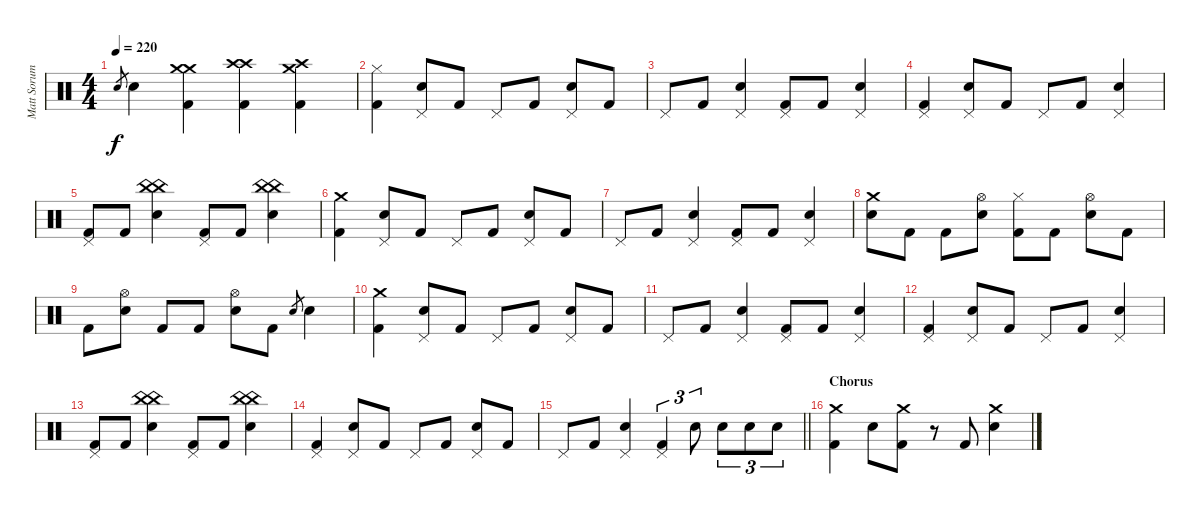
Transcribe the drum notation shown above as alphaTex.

\track ("Matt Sorum - Drums" "Matt Sorum") {instrument percussion}
\staff {score}
\articulation defaults
\ts (4 4)
\tempo 220
\clef neutral
\ks c "Snare (hit) 2".8{gr dy f} "Snare (hit) 2".4
("Crash medium (hit)" "Crash medium (hit)" "Kick (hit) 2").4 ("Crash high (hit)" "Crash high (hit)" "Kick (hit) 2").4 ("Crash medium (hit)" "Crash high (hit)" "Kick (hit) 2").4 |
("Hi-Hat (closed)" "Kick (hit) 2").4 ("Pedal Hi-Hat (hit)" "Snare (hit) 2").8 "Kick (hit) 2".8 "Pedal Hi-Hat (hit)".8 "Kick (hit) 2".8 ("Pedal Hi-Hat (hit)" "Snare (hit) 2").8 "Kick (hit) 2".8 |
"Pedal Hi-Hat (hit)".8 "Kick (hit) 2".8 ("Pedal Hi-Hat (hit)" "Snare (hit) 2").4 ("Pedal Hi-Hat (hit)" "Kick (hit) 2").8 "Kick (hit) 2".8 ("Pedal Hi-Hat (hit)" "Snare (hit) 2").4 |
("Pedal Hi-Hat (hit)" "Kick (hit) 2").4 ("Pedal Hi-Hat (hit)" "Snare (hit) 2").8 "Kick (hit) 2".8 "Pedal Hi-Hat (hit)".8 "Kick (hit) 2".8 ("Pedal Hi-Hat (hit)" "Snare (hit) 2").4 |
("Pedal Hi-Hat (hit)" "Kick (hit) 2").8 "Kick (hit) 2".8 ("China (hit)" "China (hit)" "Snare (hit) 2").4 ("Pedal Hi-Hat (hit)" "Kick (hit) 2").8 "Kick (hit) 2".8 ("China (hit)" "China (hit)" "Snare (hit) 2").4 |
("Crash medium (hit)" "Kick (hit) 2").4 ("Pedal Hi-Hat (hit)" "Snare (hit) 2").8 "Kick (hit) 2".8 "Pedal Hi-Hat (hit)".8 "Kick (hit) 2".8 ("Pedal Hi-Hat (hit)" "Snare (hit) 2").8 "Kick (hit) 2".8 |
"Pedal Hi-Hat (hit)".8 "Kick (hit) 2".8 ("Pedal Hi-Hat (hit)" "Snare (hit) 2").4 ("Pedal Hi-Hat (hit)" "Kick (hit) 2").8 "Kick (hit) 2".8 ("Pedal Hi-Hat (hit)" "Snare (hit) 2").4 |
("Crash medium (hit)" "Snare (hit) 2").8 "Kick (hit) 2".8 "Kick (hit) 2".8 ("Hi-Hat (open)" "Snare (hit) 2").8 ("Hi-Hat (closed)" "Kick (hit) 2").8 "Kick (hit) 2".8 ("Hi-Hat (open)" "Snare (hit) 2").8 "Kick (hit) 2".8 |
"Kick (hit) 2".8 ("Hi-Hat (open)" "Snare (hit) 2").8 "Kick (hit) 2".8 "Kick (hit) 2".8 ("Hi-Hat (open)" "Snare (hit) 2").8 "Kick (hit) 2".8 "Snare (hit) 2".8{gr} "Snare (hit) 2".4 |
("Crash medium (hit)" "Kick (hit) 2").4 ("Pedal Hi-Hat (hit)" "Snare (hit) 2").8 "Kick (hit) 2".8 "Pedal Hi-Hat (hit)".8 "Kick (hit) 2".8 ("Pedal Hi-Hat (hit)" "Snare (hit) 2").8 "Kick (hit) 2".8 |
"Pedal Hi-Hat (hit)".8 "Kick (hit) 2".8 ("Pedal Hi-Hat (hit)" "Snare (hit) 2").4 ("Pedal Hi-Hat (hit)" "Kick (hit) 2").8 "Kick (hit) 2".8 ("Pedal Hi-Hat (hit)" "Snare (hit) 2").4 |
("Pedal Hi-Hat (hit)" "Kick (hit) 2").4 ("Pedal Hi-Hat (hit)" "Snare (hit) 2").8 "Kick (hit) 2".8 "Pedal Hi-Hat (hit)".8 "Kick (hit) 2".8 ("Pedal Hi-Hat (hit)" "Snare (hit) 2").4 |
("Pedal Hi-Hat (hit)" "Kick (hit) 2").8 "Kick (hit) 2".8 ("China (hit)" "China (hit)" "Snare (hit) 2").4 ("Pedal Hi-Hat (hit)" "Kick (hit) 2").8 "Kick (hit) 2".8 ("China (hit)" "China (hit)" "Snare (hit) 2").4 |
("Pedal Hi-Hat (hit)" "Kick (hit) 2").4 ("Pedal Hi-Hat (hit)" "Snare (hit) 2").8 "Kick (hit) 2".8 "Pedal Hi-Hat (hit)".8 "Kick (hit) 2".8 ("Pedal Hi-Hat (hit)" "Snare (hit) 2").8 "Kick (hit) 2".8 |
\barLineRight lightlight "Pedal Hi-Hat (hit)".8 "Kick (hit) 2".8
("Pedal Hi-Hat (hit)" "Snare (hit) 2").4 ("Pedal Hi-Hat (hit)" "Kick (hit) 2").4{tu (3 2)} "Snare (hit) 2".8{tu (3 2)} "Snare (hit) 2".8{tu (3 2)} "Snare (hit) 2".8{tu (3 2)} "Snare (hit) 2".8{tu (3 2)} |
\section ("" "Chorus")
("Crash medium (hit)" "Kick (hit) 2").4 "Snare (hit) 2".8 ("Crash medium (hit)" "Kick (hit) 2").8 r.8 "Kick (hit) 2".8 ("Crash medium (hit)" "Snare (hit) 2").4
